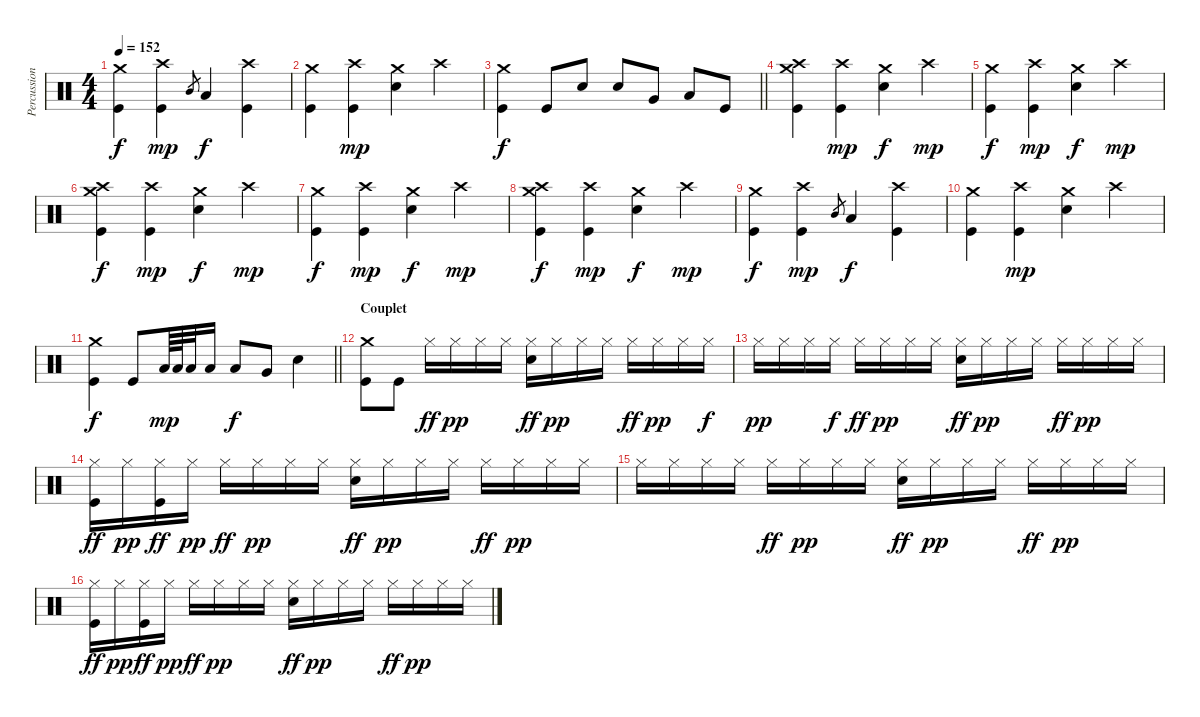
\track ("Percussions" "Percussion") {instrument percussion}
\staff {score}
\articulation defaults
\ts (4 4)
\tempo 152
\clef neutral
\ks c
("Crash medium (hit)" "Kick (hit)").4{dy f} ("Crash high (hit)" "Kick (hit)").4{dy mp} "Mid Tom (hit)".8{gr} "Low Tom (hit)".4{dy f} ("Crash high (hit)" "Kick (hit)").4 |
("Crash medium (hit)" "Kick (hit)").4 ("Crash high (hit)" "Kick (hit)").4{dy mp} ("Crash medium (hit)" "Snare (hit) 2").4 "Crash high (hit)".4 |
\barLineRight lightlight
("Crash medium (hit)" "Kick (hit)").4{dy f} "Kick (hit)".8 "Snare (hit) 2".8 "Snare (hit) 2".8 "Very Low Tom (hit)".8 "Low Tom (hit)".8 "Kick (hit)".8 |
("Crash high (hit)" "Crash medium (hit)" "Kick (hit)").4 ("Crash high (hit)" "Kick (hit)").4{dy mp} ("Crash medium (hit)" "Snare (hit) 2").4{dy f} "Crash high (hit)".4{dy mp} |
("Crash medium (hit)" "Kick (hit)").4{dy f} ("Crash high (hit)" "Kick (hit)").4{dy mp} ("Crash medium (hit)" "Snare (hit) 2").4{dy f} "Crash high (hit)".4{dy mp} |
("Crash high (hit)" "Crash medium (hit)" "Kick (hit)").4{dy f} ("Crash high (hit)" "Kick (hit)").4{dy mp} ("Crash medium (hit)" "Snare (hit) 2").4{dy f} "Crash high (hit)".4{dy mp} |
("Crash medium (hit)" "Kick (hit)").4{dy f} ("Crash high (hit)" "Kick (hit)").4{dy mp} ("Crash medium (hit)" "Snare (hit) 2").4{dy f} "Crash high (hit)".4{dy mp} |
("Crash high (hit)" "Crash medium (hit)" "Kick (hit)").4{dy f} ("Crash high (hit)" "Kick (hit)").4{dy mp} ("Crash medium (hit)" "Snare (hit) 2").4{dy f} "Crash high (hit)".4{dy mp} |
("Crash medium (hit)" "Kick (hit)").4{dy f} ("Crash high (hit)" "Kick (hit)").4{dy mp} "Mid Tom (hit)".8{gr} "Low Tom (hit)".4{dy f} ("Crash high (hit)" "Kick (hit)").4 |
("Crash medium (hit)" "Kick (hit)").4 ("Crash high (hit)" "Kick (hit)").4{dy mp} ("Crash medium (hit)" "Snare (hit) 2").4 "Crash high (hit)".4 |
\barLineRight lightlight
("Crash medium (hit)" "Kick (hit)").4{dy f} "Kick (hit)".8 "Low Tom (hit)".64{dy mp} "Low Tom (hit)".64 "Low Tom (hit)".32 "Low Tom (hit)".16 "Low Tom (hit)".8{dy f} "Very Low Tom (hit)".8 "Snare (hit) 2".4 |
\section ("" "Couplet")
("Crash medium (hit)" "Kick (hit)").8 "Kick (hit)".8 "Hi-Hat (closed)".16{dy ff} "Hi-Hat (closed)".16{dy pp} "Hi-Hat (closed)".16 "Hi-Hat (closed)".16 ("Hi-Hat (closed)" "Snare (hit) 2").16{dy ff} "Hi-Hat (closed)".16{dy pp} "Hi-Hat (closed)".16 "Hi-Hat (closed)".16 "Hi-Hat (closed)".16{dy ff} "Hi-Hat (closed)".16{dy pp} "Hi-Hat (closed)".16 "Hi-Hat (closed)".16{dy f} |
"Hi-Hat (closed)".16{dy pp} "Hi-Hat (closed)".16 "Hi-Hat (closed)".16 "Hi-Hat (closed)".16{dy f} "Hi-Hat (closed)".16{dy ff} "Hi-Hat (closed)".16{dy pp} "Hi-Hat (closed)".16 "Hi-Hat (closed)".16 ("Hi-Hat (closed)" "Snare (hit) 2").16{dy ff} "Hi-Hat (closed)".16{dy pp} "Hi-Hat (closed)".16 "Hi-Hat (closed)".16 "Hi-Hat (closed)".16{dy ff} "Hi-Hat (closed)".16{dy pp} "Hi-Hat (closed)".16 "Hi-Hat (closed)".16 |
("Hi-Hat (closed)" "Kick (hit)").16{dy ff} "Hi-Hat (closed)".16{dy pp} ("Hi-Hat (closed)" "Kick (hit)").16{dy ff} "Hi-Hat (closed)".16{dy pp} "Hi-Hat (closed)".16{dy ff} "Hi-Hat (closed)".16{dy pp} "Hi-Hat (closed)".16 "Hi-Hat (closed)".16 ("Hi-Hat (closed)" "Snare (hit) 2").16{dy ff} "Hi-Hat (closed)".16{dy pp} "Hi-Hat (closed)".16 "Hi-Hat (closed)".16 "Hi-Hat (closed)".16{dy ff} "Hi-Hat (closed)".16{dy pp} "Hi-Hat (closed)".16 "Hi-Hat (closed)".16 |
"Hi-Hat (closed)".16 "Hi-Hat (closed)".16 "Hi-Hat (closed)".16 "Hi-Hat (closed)".16 "Hi-Hat (closed)".16{dy ff} "Hi-Hat (closed)".16{dy pp} "Hi-Hat (closed)".16 "Hi-Hat (closed)".16 ("Hi-Hat (closed)" "Snare (hit) 2").16{dy ff} "Hi-Hat (closed)".16{dy pp} "Hi-Hat (closed)".16 "Hi-Hat (closed)".16 "Hi-Hat (closed)".16{dy ff} "Hi-Hat (closed)".16{dy pp} "Hi-Hat (closed)".16 "Hi-Hat (closed)".16 |
("Hi-Hat (closed)" "Kick (hit)").16{dy ff} "Hi-Hat (closed)".16{dy pp} ("Hi-Hat (closed)" "Kick (hit)").16{dy ff} "Hi-Hat (closed)".16{dy pp} "Hi-Hat (closed)".16{dy ff} "Hi-Hat (closed)".16{dy pp} "Hi-Hat (closed)".16 "Hi-Hat (closed)".16 ("Hi-Hat (closed)" "Snare (hit) 2").16{dy ff} "Hi-Hat (closed)".16{dy pp} "Hi-Hat (closed)".16 "Hi-Hat (closed)".16 "Hi-Hat (closed)".16{dy ff} "Hi-Hat (closed)".16{dy pp} "Hi-Hat (closed)".16 "Hi-Hat (closed)".16
